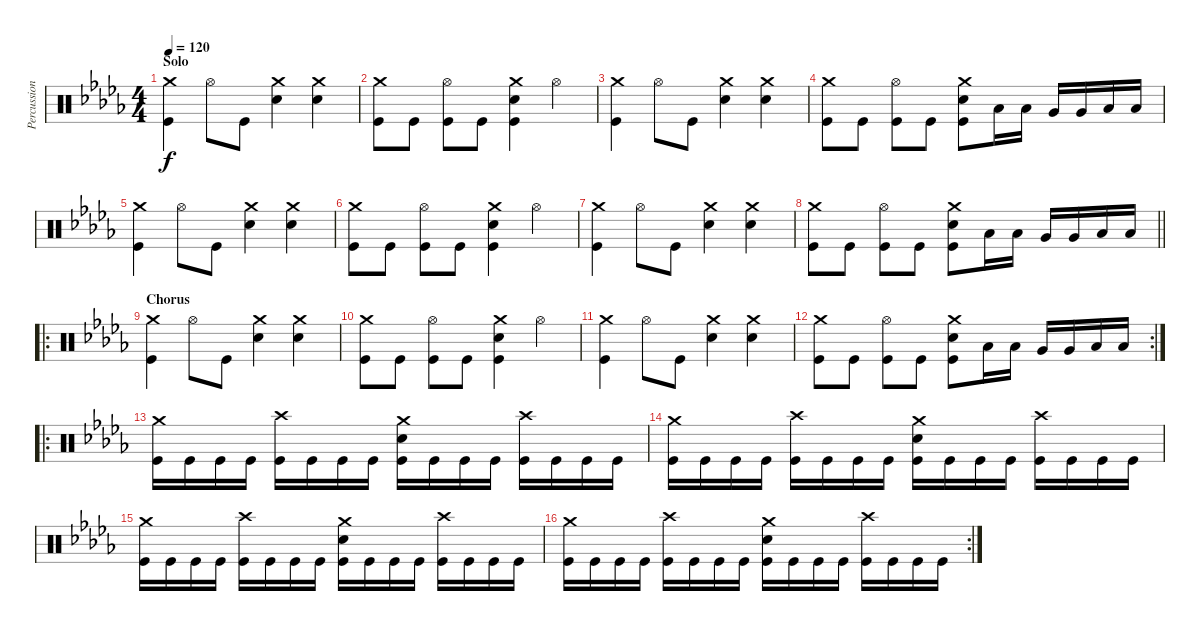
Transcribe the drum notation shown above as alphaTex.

\track ("Percussion" "Percussion") {instrument percussion}
\staff {score}
\articulation defaults
\ts (4 4)
\section ("" "Solo")
\tempo 120
\clef neutral
\ks db
("Crash medium (hit)" "Kick (hit)").4{dy f} "Hi-Hat (open)".8 "Kick (hit)".8 ("Crash medium (hit)" "Snare (hit) 2").4 ("Crash medium (hit)" "Snare (hit) 2").4 |
("Crash medium (hit)" "Kick (hit)").8 "Kick (hit)".8 ("Hi-Hat (open)" "Kick (hit)").8 "Kick (hit)".8 ("Crash medium (hit)" "Snare (hit) 2" "Kick (hit)").4 "Hi-Hat (open)".4 |
("Crash medium (hit)" "Kick (hit)").4 "Hi-Hat (open)".8 "Kick (hit)".8 ("Crash medium (hit)" "Snare (hit) 2").4 ("Crash medium (hit)" "Snare (hit) 2").4 |
("Crash medium (hit)" "Kick (hit)").8 "Kick (hit)".8 ("Hi-Hat (open)" "Kick (hit)").8 "Kick (hit)".8 ("Crash medium (hit)" "Snare (hit) 2" "Kick (hit)").8 "Low Tom (hit)".16 "Low Tom (hit)".16 "Very Low Tom (hit)".16 "Very Low Tom (hit)".16 "Low Floor Tom (hit)".16 "Low Floor Tom (hit)".16 |
("Crash medium (hit)" "Kick (hit)").4 "Hi-Hat (open)".8 "Kick (hit)".8 ("Crash medium (hit)" "Snare (hit) 2").4 ("Crash medium (hit)" "Snare (hit) 2").4 |
("Crash medium (hit)" "Kick (hit)").8 "Kick (hit)".8 ("Hi-Hat (open)" "Kick (hit)").8 "Kick (hit)".8 ("Crash medium (hit)" "Snare (hit) 2" "Kick (hit)").4 "Hi-Hat (open)".4 |
("Crash medium (hit)" "Kick (hit)").4 "Hi-Hat (open)".8 "Kick (hit)".8 ("Crash medium (hit)" "Snare (hit) 2").4 ("Crash medium (hit)" "Snare (hit) 2").4 |
\barLineRight lightlight
("Crash medium (hit)" "Kick (hit)").8 "Kick (hit)".8 ("Hi-Hat (open)" "Kick (hit)").8 "Kick (hit)".8 ("Crash medium (hit)" "Snare (hit) 2" "Kick (hit)").8 "Low Tom (hit)".16 "Low Tom (hit)".16 "Very Low Tom (hit)".16 "Very Low Tom (hit)".16 "Low Floor Tom (hit)".16 "Low Floor Tom (hit)".16 |
\ro
\section ("" "Chorus")
("Crash medium (hit)" "Kick (hit)").4 "Hi-Hat (open)".8 "Kick (hit)".8 ("Crash medium (hit)" "Snare (hit) 2").4 ("Crash medium (hit)" "Snare (hit) 2").4 |
("Crash medium (hit)" "Kick (hit)").8 "Kick (hit)".8 ("Hi-Hat (open)" "Kick (hit)").8 "Kick (hit)".8 ("Crash medium (hit)" "Snare (hit) 2" "Kick (hit)").4 "Hi-Hat (open)".4 |
("Crash medium (hit)" "Kick (hit)").4 "Hi-Hat (open)".8 "Kick (hit)".8 ("Crash medium (hit)" "Snare (hit) 2").4 ("Crash medium (hit)" "Snare (hit) 2").4 |
\rc 2
("Crash medium (hit)" "Kick (hit)").8 "Kick (hit)".8 ("Hi-Hat (open)" "Kick (hit)").8 "Kick (hit)".8 ("Crash medium (hit)" "Snare (hit) 2" "Kick (hit)").8 "Low Tom (hit)".16 "Low Tom (hit)".16 "Very Low Tom (hit)".16 "Very Low Tom (hit)".16 "Low Floor Tom (hit)".16 "Low Floor Tom (hit)".16 |
\ro
("Crash medium (hit)" "Kick (hit)").16 "Kick (hit)".16 "Kick (hit)".16 "Kick (hit)".16 ("Crash high (hit)" "Kick (hit)").16 "Kick (hit)".16 "Kick (hit)".16 "Kick (hit)".16 ("Crash medium (hit)" "Snare (hit) 2" "Kick (hit)").16 "Kick (hit)".16 "Kick (hit)".16 "Kick (hit)".16 ("Crash high (hit)" "Kick (hit)").16 "Kick (hit)".16 "Kick (hit)".16 "Kick (hit)".16 |
("Crash medium (hit)" "Kick (hit)").16 "Kick (hit)".16 "Kick (hit)".16 "Kick (hit)".16 ("Crash high (hit)" "Kick (hit)").16 "Kick (hit)".16 "Kick (hit)".16 "Kick (hit)".16 ("Crash medium (hit)" "Snare (hit) 2" "Kick (hit)").16 "Kick (hit)".16 "Kick (hit)".16 "Kick (hit)".16 ("Crash high (hit)" "Kick (hit)").16 "Kick (hit)".16 "Kick (hit)".16 "Kick (hit)".16 |
("Crash medium (hit)" "Kick (hit)").16 "Kick (hit)".16 "Kick (hit)".16 "Kick (hit)".16 ("Crash high (hit)" "Kick (hit)").16 "Kick (hit)".16 "Kick (hit)".16 "Kick (hit)".16 ("Crash medium (hit)" "Snare (hit) 2" "Kick (hit)").16 "Kick (hit)".16 "Kick (hit)".16 "Kick (hit)".16 ("Crash high (hit)" "Kick (hit)").16 "Kick (hit)".16 "Kick (hit)".16 "Kick (hit)".16 |
\rc 2
("Crash medium (hit)" "Kick (hit)").16 "Kick (hit)".16 "Kick (hit)".16 "Kick (hit)".16 ("Crash high (hit)" "Kick (hit)").16 "Kick (hit)".16 "Kick (hit)".16 "Kick (hit)".16 ("Crash medium (hit)" "Snare (hit) 2" "Kick (hit)").16 "Kick (hit)".16 "Kick (hit)".16 "Kick (hit)".16 ("Crash high (hit)" "Kick (hit)").16 "Kick (hit)".16 "Kick (hit)".16 "Kick (hit)".16
